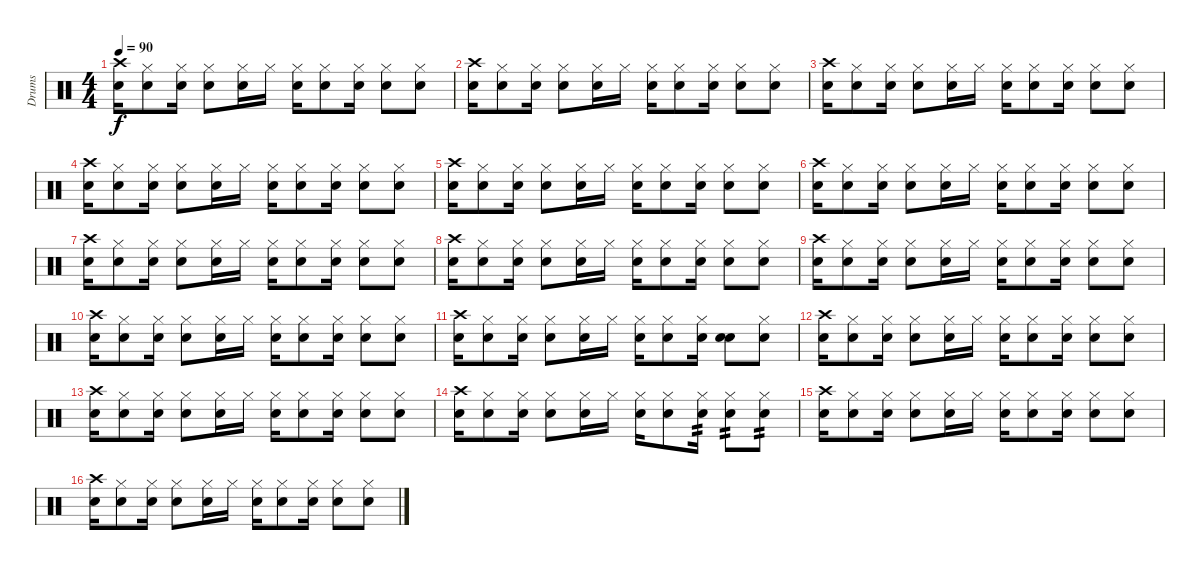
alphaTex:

\track ("Drums" "Drums") {instrument percussion}
\staff {score}
\articulation defaults
\ts (4 4)
\tempo 90
\clef neutral
\ks c
("Crash high (hit)" "Snare (hit) 2").16{dy f} ("Hi-Hat (closed)" "Snare (hit) 2").8 ("Hi-Hat (closed)" "Snare (hit) 2").16 ("Hi-Hat (closed)" "Snare (hit) 2").8 ("Hi-Hat (closed)" "Snare (hit) 2").16 "Hi-Hat (closed)".16 ("Hi-Hat (closed)" "Snare (hit) 2").16 ("Hi-Hat (closed)" "Snare (hit) 2").8 ("Hi-Hat (closed)" "Snare (hit) 2").16 ("Hi-Hat (closed)" "Snare (hit) 2").8 ("Hi-Hat (closed)" "Snare (hit) 2").8 |
("Crash high (hit)" "Snare (hit) 2").16 ("Hi-Hat (closed)" "Snare (hit) 2").8 ("Hi-Hat (closed)" "Snare (hit) 2").16 ("Hi-Hat (closed)" "Snare (hit) 2").8 ("Hi-Hat (closed)" "Snare (hit) 2").16 "Hi-Hat (closed)".16 ("Hi-Hat (closed)" "Snare (hit) 2").16 ("Hi-Hat (closed)" "Snare (hit) 2").8 ("Hi-Hat (closed)" "Snare (hit) 2").16 ("Hi-Hat (closed)" "Snare (hit) 2").8 ("Hi-Hat (closed)" "Snare (hit) 2").8 |
("Crash high (hit)" "Snare (hit) 2").16 ("Hi-Hat (closed)" "Snare (hit) 2").8 ("Hi-Hat (closed)" "Snare (hit) 2").16 ("Hi-Hat (closed)" "Snare (hit) 2").8 ("Hi-Hat (closed)" "Snare (hit) 2").16 "Hi-Hat (closed)".16 ("Hi-Hat (closed)" "Snare (hit) 2").16 ("Hi-Hat (closed)" "Snare (hit) 2").8 ("Hi-Hat (closed)" "Snare (hit) 2").16 ("Hi-Hat (closed)" "Snare (hit) 2").8 ("Hi-Hat (closed)" "Snare (hit) 2").8 |
("Crash high (hit)" "Snare (hit) 2").16 ("Hi-Hat (closed)" "Snare (hit) 2").8 ("Hi-Hat (closed)" "Snare (hit) 2").16 ("Hi-Hat (closed)" "Snare (hit) 2").8 ("Hi-Hat (closed)" "Snare (hit) 2").16 "Hi-Hat (closed)".16 ("Hi-Hat (closed)" "Snare (hit) 2").16 ("Hi-Hat (closed)" "Snare (hit) 2").8 ("Hi-Hat (closed)" "Snare (hit) 2").16 ("Hi-Hat (closed)" "Snare (hit) 2").8 ("Hi-Hat (closed)" "Snare (hit) 2").8 |
("Crash high (hit)" "Snare (hit) 2").16 ("Hi-Hat (closed)" "Snare (hit) 2").8 ("Hi-Hat (closed)" "Snare (hit) 2").16 ("Hi-Hat (closed)" "Snare (hit) 2").8 ("Hi-Hat (closed)" "Snare (hit) 2").16 "Hi-Hat (closed)".16 ("Hi-Hat (closed)" "Snare (hit) 2").16 ("Hi-Hat (closed)" "Snare (hit) 2").8 ("Hi-Hat (closed)" "Snare (hit) 2").16 ("Hi-Hat (closed)" "Snare (hit) 2").8 ("Hi-Hat (closed)" "Snare (hit) 2").8 |
("Crash high (hit)" "Snare (hit) 2").16 ("Hi-Hat (closed)" "Snare (hit) 2").8 ("Hi-Hat (closed)" "Snare (hit) 2").16 ("Hi-Hat (closed)" "Snare (hit) 2").8 ("Hi-Hat (closed)" "Snare (hit) 2").16 "Hi-Hat (closed)".16 ("Hi-Hat (closed)" "Snare (hit) 2").16 ("Hi-Hat (closed)" "Snare (hit) 2").8 ("Hi-Hat (closed)" "Snare (hit) 2").16 ("Hi-Hat (closed)" "Snare (hit) 2").8 ("Hi-Hat (closed)" "Snare (hit) 2").8 |
("Crash high (hit)" "Snare (hit) 2").16 ("Hi-Hat (closed)" "Snare (hit) 2").8 ("Hi-Hat (closed)" "Snare (hit) 2").16 ("Hi-Hat (closed)" "Snare (hit) 2").8 ("Hi-Hat (closed)" "Snare (hit) 2").16 "Hi-Hat (closed)".16 ("Hi-Hat (closed)" "Snare (hit) 2").16 ("Hi-Hat (closed)" "Snare (hit) 2").8 ("Hi-Hat (closed)" "Snare (hit) 2").16 ("Hi-Hat (closed)" "Snare (hit) 2").8 ("Hi-Hat (closed)" "Snare (hit) 2").8 |
("Crash high (hit)" "Snare (hit) 2").16 ("Hi-Hat (closed)" "Snare (hit) 2").8 ("Hi-Hat (closed)" "Snare (hit) 2").16 ("Hi-Hat (closed)" "Snare (hit) 2").8 ("Hi-Hat (closed)" "Snare (hit) 2").16 "Hi-Hat (closed)".16 ("Hi-Hat (closed)" "Snare (hit) 2").16 ("Hi-Hat (closed)" "Snare (hit) 2").8 ("Hi-Hat (closed)" "Snare (hit) 2").16 ("Hi-Hat (closed)" "Snare (hit) 2").8 ("Hi-Hat (closed)" "Snare (hit) 2").8 |
("Crash high (hit)" "Snare (hit) 2").16 ("Hi-Hat (closed)" "Snare (hit) 2").8 ("Hi-Hat (closed)" "Snare (hit) 2").16 ("Hi-Hat (closed)" "Snare (hit) 2").8 ("Hi-Hat (closed)" "Snare (hit) 2").16 "Hi-Hat (closed)".16 ("Hi-Hat (closed)" "Snare (hit) 2").16 ("Hi-Hat (closed)" "Snare (hit) 2").8 ("Hi-Hat (closed)" "Snare (hit) 2").16 ("Hi-Hat (closed)" "Snare (hit) 2").8 ("Hi-Hat (closed)" "Snare (hit) 2").8 |
("Crash high (hit)" "Snare (hit) 2").16 ("Hi-Hat (closed)" "Snare (hit) 2").8 ("Hi-Hat (closed)" "Snare (hit) 2").16 ("Hi-Hat (closed)" "Snare (hit) 2").8 ("Hi-Hat (closed)" "Snare (hit) 2").16 "Hi-Hat (closed)".16 ("Hi-Hat (closed)" "Snare (hit) 2").16 ("Hi-Hat (closed)" "Snare (hit) 2").8 ("Hi-Hat (closed)" "Snare (hit) 2").16 ("Hi-Hat (closed)" "Snare (hit) 2").8 ("Hi-Hat (closed)" "Snare (hit) 2").8 |
("Crash high (hit)" "Snare (hit) 2").16 ("Hi-Hat (closed)" "Snare (hit) 2").8 ("Hi-Hat (closed)" "Snare (hit) 2").16 ("Hi-Hat (closed)" "Snare (hit) 2").8 ("Hi-Hat (closed)" "Snare (hit) 2").16 "Hi-Hat (closed)".16 ("Hi-Hat (closed)" "Snare (hit) 2").16 ("Hi-Hat (closed)" "Snare (hit) 2").8 ("Hi-Hat (closed)" "Snare (hit) 2").16 ("Snare (hit)" "Snare (hit) 2").8 ("Hi-Hat (closed)" "Snare (hit) 2").8 |
("Crash high (hit)" "Snare (hit) 2").16 ("Hi-Hat (closed)" "Snare (hit) 2").8 ("Hi-Hat (closed)" "Snare (hit) 2").16 ("Hi-Hat (closed)" "Snare (hit) 2").8 ("Hi-Hat (closed)" "Snare (hit) 2").16 "Hi-Hat (closed)".16 ("Hi-Hat (closed)" "Snare (hit) 2").16 ("Hi-Hat (closed)" "Snare (hit) 2").8 ("Hi-Hat (closed)" "Snare (hit) 2").16 ("Hi-Hat (closed)" "Snare (hit) 2").8 ("Hi-Hat (closed)" "Snare (hit) 2").8 |
("Crash high (hit)" "Snare (hit) 2").16 ("Hi-Hat (closed)" "Snare (hit) 2").8 ("Hi-Hat (closed)" "Snare (hit) 2").16 ("Hi-Hat (closed)" "Snare (hit) 2").8 ("Hi-Hat (closed)" "Snare (hit) 2").16 "Hi-Hat (closed)".16 ("Hi-Hat (closed)" "Snare (hit) 2").16 ("Hi-Hat (closed)" "Snare (hit) 2").8 ("Hi-Hat (closed)" "Snare (hit) 2").16 ("Hi-Hat (closed)" "Snare (hit) 2").8 ("Hi-Hat (closed)" "Snare (hit) 2").8 |
("Crash high (hit)" "Snare (hit) 2").16 ("Hi-Hat (closed)" "Snare (hit) 2").8 ("Hi-Hat (closed)" "Snare (hit) 2").16 ("Hi-Hat (closed)" "Snare (hit) 2").8 ("Hi-Hat (closed)" "Snare (hit) 2").16 "Hi-Hat (closed)".16 ("Hi-Hat (closed)" "Snare (hit) 2").16 ("Hi-Hat (closed)" "Snare (hit) 2").8 ("Hi-Hat (closed)" "Snare (hit) 2").16{tp 2} ("Hi-Hat (closed)" "Snare (hit) 2").8{tp 2} ("Hi-Hat (closed)" "Snare (hit) 2").8{tp 2} |
("Crash high (hit)" "Snare (hit) 2").16 ("Hi-Hat (closed)" "Snare (hit) 2").8 ("Hi-Hat (closed)" "Snare (hit) 2").16 ("Hi-Hat (closed)" "Snare (hit) 2").8 ("Hi-Hat (closed)" "Snare (hit) 2").16 "Hi-Hat (closed)".16 ("Hi-Hat (closed)" "Snare (hit) 2").16 ("Hi-Hat (closed)" "Snare (hit) 2").8 ("Hi-Hat (closed)" "Snare (hit) 2").16 ("Hi-Hat (closed)" "Snare (hit) 2").8 ("Hi-Hat (closed)" "Snare (hit) 2").8 |
("Crash high (hit)" "Snare (hit) 2").16 ("Hi-Hat (closed)" "Snare (hit) 2").8 ("Hi-Hat (closed)" "Snare (hit) 2").16 ("Hi-Hat (closed)" "Snare (hit) 2").8 ("Hi-Hat (closed)" "Snare (hit) 2").16 "Hi-Hat (closed)".16 ("Hi-Hat (closed)" "Snare (hit) 2").16 ("Hi-Hat (closed)" "Snare (hit) 2").8 ("Hi-Hat (closed)" "Snare (hit) 2").16 ("Hi-Hat (closed)" "Snare (hit) 2").8 ("Hi-Hat (closed)" "Snare (hit) 2").8
